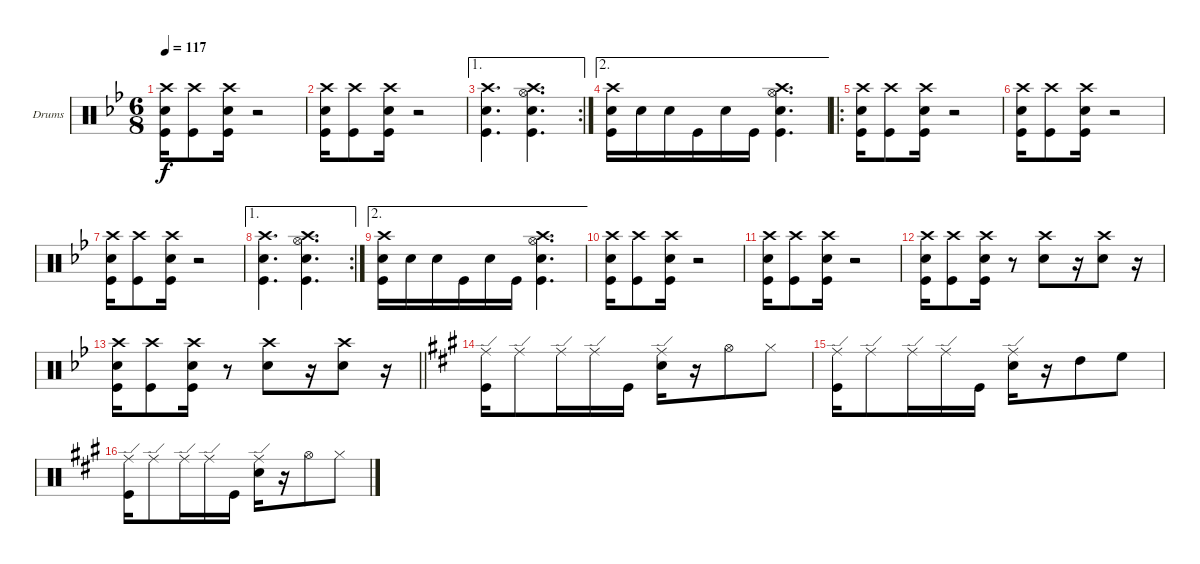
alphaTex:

\bracketExtendMode groupsimilarinstruments
\firstSystemTrackNameOrientation horizontal
\otherSystemsTrackNameOrientation horizontal
\track ("Drumkit" "Drums") {instrument percussion}
\staff {score}
\articulation defaults
\ts (6 8)
\tempo 117
\clef neutral
\ks bb
("Crash high (hit)" "Kick (hit)" "Snare (hit) 2").16{dy f} ("Crash high (hit)" "Kick (hit)").8 ("Crash high (hit)" "Kick (hit)" "Snare (hit) 2").16 r.2 |
("Crash high (hit)" "Kick (hit)" "Snare (hit) 2").16 ("Crash high (hit)" "Kick (hit)").8 ("Crash high (hit)" "Kick (hit)" "Snare (hit) 2").16 r.2 |
\ae 1
\rc 2
("Crash high (hit)" "Kick (hit)" "Snare (hit) 2").4{d} ("Crash high (hit)" "Hi-Hat (open)" "Snare (hit) 2" "Kick (hit)").4{d} |
\ae 2
("Crash high (hit)" "Kick (hit)" "Snare (hit) 2").16 "Snare (hit) 2".16 "Snare (hit) 2".16 "Kick (hit)".16 "Snare (hit) 2".16 "Kick (hit)".16 ("Crash high (hit)" "Hi-Hat (open)" "Snare (hit) 2" "Kick (hit)").4{d} |
\ro
("Crash high (hit)" "Kick (hit)" "Snare (hit) 2").16 ("Crash high (hit)" "Kick (hit)").8 ("Crash high (hit)" "Kick (hit)" "Snare (hit) 2").16 r.2 |
("Crash high (hit)" "Kick (hit)" "Snare (hit) 2").16 ("Crash high (hit)" "Kick (hit)").8 ("Crash high (hit)" "Kick (hit)" "Snare (hit) 2").16 r.2 |
("Crash high (hit)" "Kick (hit)" "Snare (hit) 2").16 ("Crash high (hit)" "Kick (hit)").8 ("Crash high (hit)" "Kick (hit)" "Snare (hit) 2").16 r.2 |
\ae 1
\rc 2
("Crash high (hit)" "Kick (hit)" "Snare (hit) 2").4{d} ("Crash high (hit)" "Hi-Hat (open)" "Snare (hit) 2" "Kick (hit)").4{d} |
\ae 2
("Crash high (hit)" "Kick (hit)" "Snare (hit) 2").16 "Snare (hit) 2".16 "Snare (hit) 2".16 "Kick (hit)".16 "Snare (hit) 2".16 "Kick (hit)".16 ("Crash high (hit)" "Hi-Hat (open)" "Snare (hit) 2" "Kick (hit)").4{d} |
("Crash high (hit)" "Kick (hit)" "Snare (hit) 2").16 ("Crash high (hit)" "Kick (hit)").8 ("Crash high (hit)" "Kick (hit)" "Snare (hit) 2").16 r.2 |
("Crash high (hit)" "Kick (hit)" "Snare (hit) 2").16 ("Crash high (hit)" "Kick (hit)").8 ("Crash high (hit)" "Kick (hit)" "Snare (hit) 2").16 r.2 |
("Crash high (hit)" "Kick (hit)" "Snare (hit) 2").16 ("Crash high (hit)" "Kick (hit)").8 ("Crash high (hit)" "Kick (hit)" "Snare (hit) 2").16 r.8 ("Crash high (hit)" "Snare (hit) 2").8 r.16 ("Crash high (hit)" "Snare (hit) 2").8 r.16 |
\barLineRight lightlight
("Crash high (hit)" "Kick (hit)" "Snare (hit) 2").16 ("Crash high (hit)" "Kick (hit)").8 ("Crash high (hit)" "Kick (hit)" "Snare (hit) 2").16 r.8 ("Crash high (hit)" "Snare (hit) 2").8 r.16 ("Crash high (hit)" "Snare (hit) 2").8 r.16 |
\ks a
("Ride (edge)" "Kick (hit)").16 "Ride (edge)".8 "Ride (edge)".16 "Ride (edge)".16 "Kick (hit)".16 ("Ride (edge)" "Snare (hit) 2").16 r.16 "Hi-Hat (open)".8 "Hi-Hat (closed)".8 |
("Ride (edge)" "Kick (hit)").16 "Ride (edge)".8 "Ride (edge)".16 "Ride (edge)".16 "Kick (hit)".16 ("Ride (edge)" "Snare (hit) 2").16 r.16 "High Tom (hit)".8 "High Floor Tom (hit)".8 |
("Ride (edge)" "Kick (hit)").16 "Ride (edge)".8 "Ride (edge)".16 "Ride (edge)".16 "Kick (hit)".16 ("Ride (edge)" "Snare (hit) 2").16 r.16 "Hi-Hat (open)".8 "Hi-Hat (closed)".8
